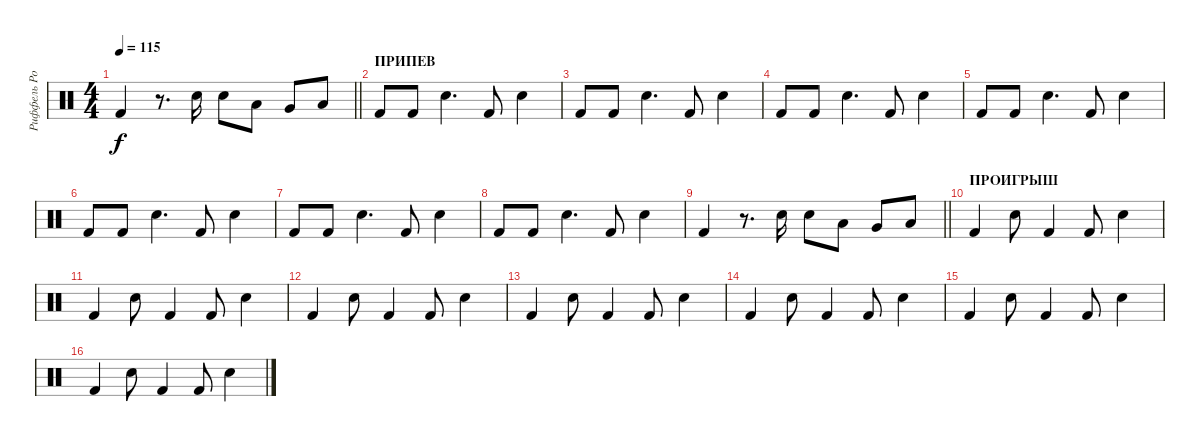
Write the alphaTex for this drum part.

\track ("Риффель Роман(Главные)" "Риффель Ро") {instrument percussion}
\staff {score}
\articulation defaults
\ts (4 4)
\tempo 115
\clef neutral
\barLineRight lightlight
\ks c "Kick (hit) 2".4{dy f}
r.8{d} "Electric Snare (hit)".16 "Electric Snare (hit)".8 "Low Tom (hit)".8 "Very Low Tom (hit)".8 "Low Floor Tom (hit)".8 |
\section ("" "ПРИПЕВ")
"Kick (hit) 2".8 "Kick (hit) 2".8 "Electric Snare (hit)".4{d} "Kick (hit) 2".8 "Electric Snare (hit)".4 |
"Kick (hit) 2".8 "Kick (hit) 2".8 "Electric Snare (hit)".4{d} "Kick (hit) 2".8 "Electric Snare (hit)".4 |
"Kick (hit) 2".8 "Kick (hit) 2".8 "Electric Snare (hit)".4{d} "Kick (hit) 2".8 "Electric Snare (hit)".4 |
"Kick (hit) 2".8 "Kick (hit) 2".8 "Electric Snare (hit)".4{d} "Kick (hit) 2".8 "Electric Snare (hit)".4 |
"Kick (hit) 2".8 "Kick (hit) 2".8 "Electric Snare (hit)".4{d} "Kick (hit) 2".8 "Electric Snare (hit)".4 |
"Kick (hit) 2".8 "Kick (hit) 2".8 "Electric Snare (hit)".4{d} "Kick (hit) 2".8 "Electric Snare (hit)".4 |
"Kick (hit) 2".8 "Kick (hit) 2".8 "Electric Snare (hit)".4{d} "Kick (hit) 2".8 "Electric Snare (hit)".4 |
\barLineRight lightlight "Kick (hit) 2".4
r.8{d} "Electric Snare (hit)".16 "Electric Snare (hit)".8 "Low Tom (hit)".8 "Very Low Tom (hit)".8 "Low Floor Tom (hit)".8 |
\section ("" "ПРОИГРЫШ")
"Kick (hit) 2".4 "Electric Snare (hit)".8 "Kick (hit) 2".4 "Kick (hit) 2".8 "Electric Snare (hit)".4 |
"Kick (hit) 2".4 "Electric Snare (hit)".8 "Kick (hit) 2".4 "Kick (hit) 2".8 "Electric Snare (hit)".4 |
"Kick (hit) 2".4 "Electric Snare (hit)".8 "Kick (hit) 2".4 "Kick (hit) 2".8 "Electric Snare (hit)".4 |
"Kick (hit) 2".4 "Electric Snare (hit)".8 "Kick (hit) 2".4 "Kick (hit) 2".8 "Electric Snare (hit)".4 |
"Kick (hit) 2".4 "Electric Snare (hit)".8 "Kick (hit) 2".4 "Kick (hit) 2".8 "Electric Snare (hit)".4 |
"Kick (hit) 2".4 "Electric Snare (hit)".8 "Kick (hit) 2".4 "Kick (hit) 2".8 "Electric Snare (hit)".4 |
"Kick (hit) 2".4 "Electric Snare (hit)".8 "Kick (hit) 2".4 "Kick (hit) 2".8 "Electric Snare (hit)".4
